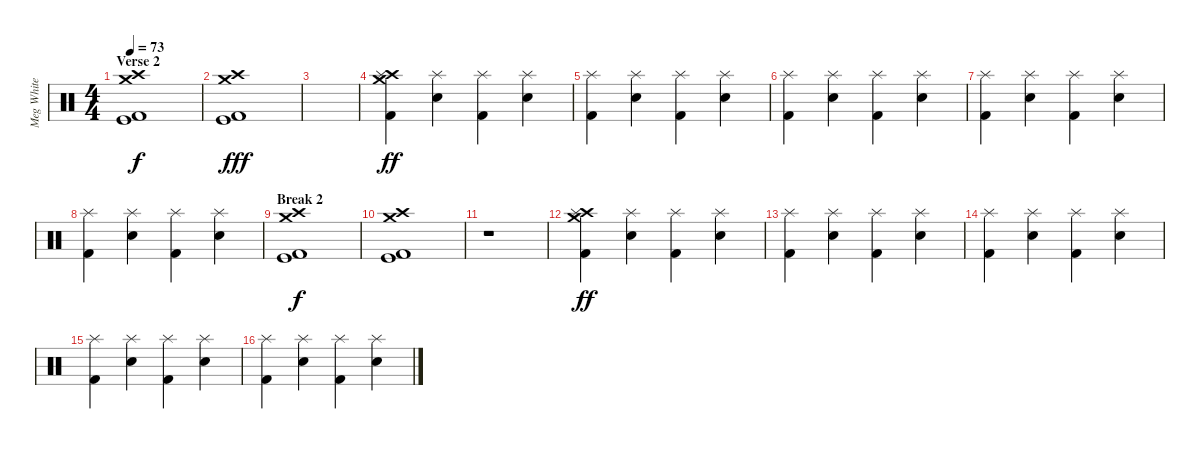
\track ("Meg White" "Meg White") {instrument percussion}
\staff {score}
\articulation defaults
\ts (4 4)
\section ("" "Verse 2")
\tempo 73
\clef neutral
\ks c
("Crash high (hit)" "Crash medium (hit)" "Kick (hit) 2" "Kick (hit)").1{dy f} |
("Crash high (hit)" "Crash medium (hit)" "Kick (hit) 2" "Kick (hit)").1{dy fff} |
|
("Crash high (hit)" "Crash medium (hit)" "Kick (hit) 2" "Splash (hit)").4{dy ff} ("Snare (hit) 2" "Splash (hit)").4 ("Kick (hit) 2" "Splash (hit)").4 ("Snare (hit) 2" "Splash (hit)").4 |
("Kick (hit) 2" "Splash (hit)").4 ("Snare (hit) 2" "Splash (hit)").4 ("Kick (hit) 2" "Splash (hit)").4 ("Snare (hit) 2" "Splash (hit)").4 |
("Kick (hit) 2" "Splash (hit)").4 ("Snare (hit) 2" "Splash (hit)").4 ("Kick (hit) 2" "Splash (hit)").4 ("Snare (hit) 2" "Splash (hit)").4 |
("Kick (hit) 2" "Splash (hit)").4 ("Snare (hit) 2" "Splash (hit)").4 ("Kick (hit) 2" "Splash (hit)").4 ("Snare (hit) 2" "Splash (hit)").4 |
("Kick (hit) 2" "Splash (hit)").4 ("Snare (hit) 2" "Splash (hit)").4 ("Kick (hit) 2" "Splash (hit)").4 ("Snare (hit) 2" "Splash (hit)").4 |
\section ("" "Break 2")
("Crash high (hit)" "Crash medium (hit)" "Kick (hit) 2" "Kick (hit)").1{dy f} |
("Crash high (hit)" "Crash medium (hit)" "Kick (hit) 2" "Kick (hit)").1 |
r.1 |
("Crash high (hit)" "Crash medium (hit)" "Kick (hit) 2" "Splash (hit)").4{dy ff} ("Snare (hit) 2" "Splash (hit)").4 ("Kick (hit) 2" "Splash (hit)").4 ("Snare (hit) 2" "Splash (hit)").4 |
("Kick (hit) 2" "Splash (hit)").4 ("Snare (hit) 2" "Splash (hit)").4 ("Kick (hit) 2" "Splash (hit)").4 ("Snare (hit) 2" "Splash (hit)").4 |
("Kick (hit) 2" "Splash (hit)").4 ("Snare (hit) 2" "Splash (hit)").4 ("Kick (hit) 2" "Splash (hit)").4 ("Snare (hit) 2" "Splash (hit)").4 |
("Kick (hit) 2" "Splash (hit)").4 ("Snare (hit) 2" "Splash (hit)").4 ("Kick (hit) 2" "Splash (hit)").4 ("Snare (hit) 2" "Splash (hit)").4 |
("Kick (hit) 2" "Splash (hit)").4 ("Snare (hit) 2" "Splash (hit)").4 ("Kick (hit) 2" "Splash (hit)").4 ("Snare (hit) 2" "Splash (hit)").4
